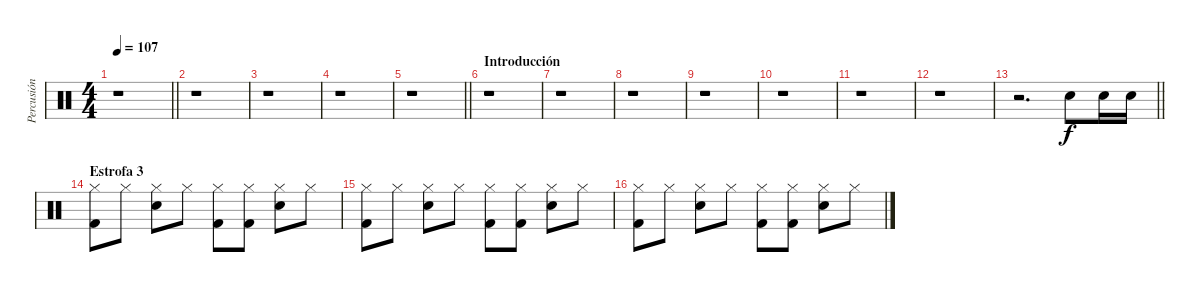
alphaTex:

\track ("Percusión" "Percusión") {instrument percussion}
\staff {score}
\articulation defaults
\ts (4 4)
\tempo 107
\clef neutral
\barLineRight lightlight
\ks c
r.1{dy f} |
r.1 |
r.1 |
r.1 |
\barLineRight lightlight
r.1 |
\section ("" "Introducción")
r.1 |
r.1 |
r.1 |
r.1 |
r.1 |
r.1 |
r.1 |
\barLineRight lightlight
r.2{d} "Snare (hit) 2".8 "Snare (hit) 2".16 "Snare (hit) 2".16 |
\section ("" "Estrofa 3")
("Hi-Hat (closed)" "Kick (hit) 2").8 "Hi-Hat (closed)".8 ("Hi-Hat (closed)" "Snare (hit) 2").8 "Hi-Hat (closed)".8 ("Hi-Hat (closed)" "Kick (hit) 2").8 ("Hi-Hat (closed)" "Kick (hit) 2").8 ("Hi-Hat (closed)" "Snare (hit) 2").8 "Hi-Hat (closed)".8 |
("Hi-Hat (closed)" "Kick (hit) 2").8 "Hi-Hat (closed)".8 ("Hi-Hat (closed)" "Snare (hit) 2").8 "Hi-Hat (closed)".8 ("Hi-Hat (closed)" "Kick (hit) 2").8 ("Hi-Hat (closed)" "Kick (hit) 2").8 ("Hi-Hat (closed)" "Snare (hit) 2").8 "Hi-Hat (closed)".8 |
("Hi-Hat (closed)" "Kick (hit) 2").8 "Hi-Hat (closed)".8 ("Hi-Hat (closed)" "Snare (hit) 2").8 "Hi-Hat (closed)".8 ("Hi-Hat (closed)" "Kick (hit) 2").8 ("Hi-Hat (closed)" "Kick (hit) 2").8 ("Hi-Hat (closed)" "Snare (hit) 2").8 "Hi-Hat (closed)".8
